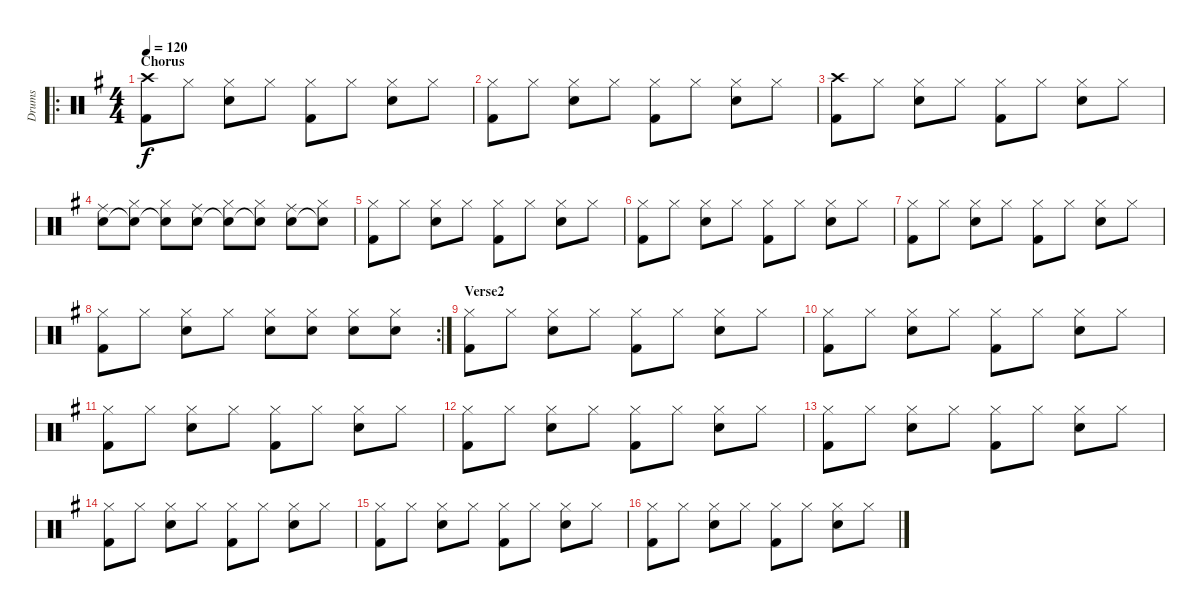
\track ("Drums" "Drums") {instrument percussion}
\staff {score}
\articulation defaults
\ro
\ts (4 4)
\section ("" "Chorus")
\tempo 120
\clef neutral
\ks g
("Crash high (hit)" "Kick (hit) 2").8{dy f} "Hi-Hat (closed)".8 ("Hi-Hat (closed)" "Snare (hit) 2").8 "Hi-Hat (closed)".8 ("Hi-Hat (closed)" "Kick (hit) 2").8 "Hi-Hat (closed)".8 ("Hi-Hat (closed)" "Snare (hit) 2").8 "Hi-Hat (closed)".8 |
("Hi-Hat (closed)" "Kick (hit) 2").8 "Hi-Hat (closed)".8 ("Hi-Hat (closed)" "Snare (hit) 2").8 "Hi-Hat (closed)".8 ("Hi-Hat (closed)" "Kick (hit) 2").8 "Hi-Hat (closed)".8 ("Hi-Hat (closed)" "Snare (hit) 2").8 "Hi-Hat (closed)".8 |
("Crash high (hit)" "Kick (hit) 2").8 "Hi-Hat (closed)".8 ("Hi-Hat (closed)" "Snare (hit) 2").8 "Hi-Hat (closed)".8 ("Hi-Hat (closed)" "Kick (hit) 2").8 "Hi-Hat (closed)".8 ("Hi-Hat (closed)" "Snare (hit) 2").8 "Hi-Hat (closed)".8 |
("Ride (middle)" "Snare (hit) 2").8 ("Hi-Hat (closed)" "Snare (hit) 2"{t}).8 ("Hi-Hat (closed)" "Snare (hit) 2"{t}).8 ("Ride (middle)" "Snare (hit) 2").8 ("Hi-Hat (closed)" "Snare (hit) 2"{t}).8 ("Hi-Hat (closed)" "Snare (hit) 2"{t}).8 ("Ride (middle)" "Snare (hit) 2").8 ("Hi-Hat (closed)" "Snare (hit) 2"{t}).8 |
("Hi-Hat (closed)" "Kick (hit) 2").8 "Hi-Hat (closed)".8 ("Hi-Hat (closed)" "Snare (hit) 2").8 "Hi-Hat (closed)".8 ("Hi-Hat (closed)" "Kick (hit) 2").8 "Hi-Hat (closed)".8 ("Hi-Hat (closed)" "Snare (hit) 2").8 "Hi-Hat (closed)".8 |
("Hi-Hat (closed)" "Kick (hit) 2").8 "Hi-Hat (closed)".8 ("Hi-Hat (closed)" "Snare (hit) 2").8 "Hi-Hat (closed)".8 ("Hi-Hat (closed)" "Kick (hit) 2").8 "Hi-Hat (closed)".8 ("Hi-Hat (closed)" "Snare (hit) 2").8 "Hi-Hat (closed)".8 |
("Hi-Hat (closed)" "Kick (hit) 2").8 "Hi-Hat (closed)".8 ("Hi-Hat (closed)" "Snare (hit) 2").8 "Hi-Hat (closed)".8 ("Hi-Hat (closed)" "Kick (hit) 2").8 "Hi-Hat (closed)".8 ("Hi-Hat (closed)" "Snare (hit) 2").8 "Hi-Hat (closed)".8 |
\rc 2
("Hi-Hat (closed)" "Kick (hit) 2").8 "Hi-Hat (closed)".8 ("Hi-Hat (closed)" "Snare (hit) 2").8 "Hi-Hat (closed)".8 ("Hi-Hat (closed)" "Snare (hit) 2").8 ("Hi-Hat (closed)" "Snare (hit) 2").8 ("Hi-Hat (closed)" "Snare (hit) 2").8 ("Hi-Hat (closed)" "Snare (hit) 2").8 |
\section ("" "Verse2")
("Hi-Hat (closed)" "Kick (hit) 2").8 "Hi-Hat (closed)".8 ("Hi-Hat (closed)" "Electric Snare (hit)").8 "Hi-Hat (closed)".8 ("Hi-Hat (closed)" "Kick (hit) 2").8 "Hi-Hat (closed)".8 ("Hi-Hat (closed)" "Electric Snare (hit)").8 "Hi-Hat (closed)".8 |
("Hi-Hat (closed)" "Kick (hit) 2").8 "Hi-Hat (closed)".8 ("Hi-Hat (closed)" "Electric Snare (hit)").8 "Hi-Hat (closed)".8 ("Hi-Hat (closed)" "Kick (hit) 2").8 "Hi-Hat (closed)".8 ("Hi-Hat (closed)" "Electric Snare (hit)").8 "Hi-Hat (closed)".8 |
("Hi-Hat (closed)" "Kick (hit) 2").8 "Hi-Hat (closed)".8 ("Hi-Hat (closed)" "Electric Snare (hit)").8 "Hi-Hat (closed)".8 ("Hi-Hat (closed)" "Kick (hit) 2").8 "Hi-Hat (closed)".8 ("Hi-Hat (closed)" "Electric Snare (hit)").8 "Hi-Hat (closed)".8 |
("Hi-Hat (closed)" "Kick (hit) 2").8 "Hi-Hat (closed)".8 ("Hi-Hat (closed)" "Electric Snare (hit)").8 "Hi-Hat (closed)".8 ("Hi-Hat (closed)" "Kick (hit) 2").8 "Hi-Hat (closed)".8 ("Hi-Hat (closed)" "Electric Snare (hit)").8 "Hi-Hat (closed)".8 |
("Hi-Hat (closed)" "Kick (hit) 2").8 "Hi-Hat (closed)".8 ("Hi-Hat (closed)" "Electric Snare (hit)").8 "Hi-Hat (closed)".8 ("Hi-Hat (closed)" "Kick (hit) 2").8 "Hi-Hat (closed)".8 ("Hi-Hat (closed)" "Electric Snare (hit)").8 "Hi-Hat (closed)".8 |
("Hi-Hat (closed)" "Kick (hit) 2").8 "Hi-Hat (closed)".8 ("Hi-Hat (closed)" "Electric Snare (hit)").8 "Hi-Hat (closed)".8 ("Hi-Hat (closed)" "Kick (hit) 2").8 "Hi-Hat (closed)".8 ("Hi-Hat (closed)" "Electric Snare (hit)").8 "Hi-Hat (closed)".8 |
("Hi-Hat (closed)" "Kick (hit) 2").8 "Hi-Hat (closed)".8 ("Hi-Hat (closed)" "Electric Snare (hit)").8 "Hi-Hat (closed)".8 ("Hi-Hat (closed)" "Kick (hit) 2").8 "Hi-Hat (closed)".8 ("Hi-Hat (closed)" "Electric Snare (hit)").8 "Hi-Hat (closed)".8 |
("Hi-Hat (closed)" "Kick (hit) 2").8 "Hi-Hat (closed)".8 ("Hi-Hat (closed)" "Electric Snare (hit)").8 "Hi-Hat (closed)".8 ("Hi-Hat (closed)" "Kick (hit) 2").8 "Hi-Hat (closed)".8 ("Hi-Hat (closed)" "Electric Snare (hit)").8 "Hi-Hat (closed)".8
